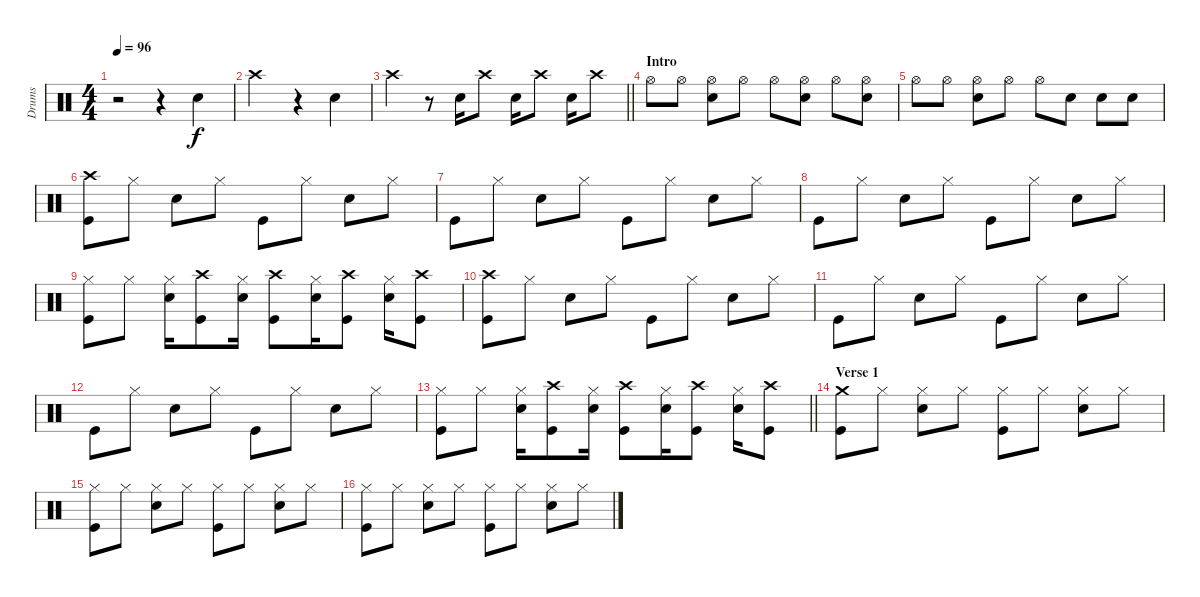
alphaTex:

\track ("Drums" "Drums") {instrument percussion}
\staff {score}
\articulation defaults
\ts (4 4)
\tempo 96
\clef neutral
\ks c
r.2{dy f} r.4 "Snare (hit) 2".4 |
"Crash high (hit)".2 r.4 "Snare (hit) 2".4 |
\barLineRight lightlight "Crash high (hit)".4
r.8 "Snare (hit) 2".16 "Crash high (hit)".8 "Snare (hit) 2".16 "Crash high (hit)".8 "Snare (hit) 2".16 "Crash high (hit)".8 |
\section ("" "Intro")
"Hi-Hat (open)".8 "Hi-Hat (open)".8 ("Hi-Hat (open)" "Snare (hit) 2").8 "Hi-Hat (open)".8 "Hi-Hat (open)".8 ("Hi-Hat (open)" "Snare (hit) 2").8 "Hi-Hat (open)".8 ("Hi-Hat (open)" "Snare (hit) 2").8 |
"Hi-Hat (open)".8 "Hi-Hat (open)".8 ("Hi-Hat (open)" "Snare (hit) 2").8 "Hi-Hat (open)".8 "Hi-Hat (open)".8 "Snare (hit) 2".8 "Snare (hit) 2".8 "Snare (hit) 2".8 |
("Crash high (hit)" "Kick (hit)").8 "Hi-Hat (closed)".8 "Electric Snare (hit)".8 "Hi-Hat (closed)".8 "Kick (hit)".8 "Hi-Hat (closed)".8 "Electric Snare (hit)".8 "Hi-Hat (closed)".8 |
"Kick (hit)".8 "Hi-Hat (closed)".8 "Electric Snare (hit)".8 "Hi-Hat (closed)".8 "Kick (hit)".8 "Hi-Hat (closed)".8 "Electric Snare (hit)".8 "Hi-Hat (closed)".8 |
"Kick (hit)".8 "Hi-Hat (closed)".8 "Electric Snare (hit)".8 "Hi-Hat (closed)".8 "Kick (hit)".8 "Hi-Hat (closed)".8 "Electric Snare (hit)".8 "Hi-Hat (closed)".8 |
("Hi-Hat (closed)" "Kick (hit)").8 "Hi-Hat (closed)".8 ("Hi-Hat (closed)" "Electric Snare (hit)").16 ("Crash high (hit)" "Kick (hit)").8 ("Hi-Hat (closed)" "Electric Snare (hit)").16 ("Crash high (hit)" "Kick (hit)").8 ("Hi-Hat (closed)" "Electric Snare (hit)").16 ("Crash high (hit)" "Kick (hit)").8 ("Hi-Hat (closed)" "Electric Snare (hit)").16 ("Crash high (hit)" "Kick (hit)").8 |
("Crash high (hit)" "Kick (hit)").8 "Hi-Hat (closed)".8 "Electric Snare (hit)".8 "Hi-Hat (closed)".8 "Kick (hit)".8 "Hi-Hat (closed)".8 "Electric Snare (hit)".8 "Hi-Hat (closed)".8 |
"Kick (hit)".8 "Hi-Hat (closed)".8 "Electric Snare (hit)".8 "Hi-Hat (closed)".8 "Kick (hit)".8 "Hi-Hat (closed)".8 "Electric Snare (hit)".8 "Hi-Hat (closed)".8 |
"Kick (hit)".8 "Hi-Hat (closed)".8 "Electric Snare (hit)".8 "Hi-Hat (closed)".8 "Kick (hit)".8 "Hi-Hat (closed)".8 "Electric Snare (hit)".8 "Hi-Hat (closed)".8 |
\barLineRight lightlight
("Hi-Hat (closed)" "Kick (hit)").8 "Hi-Hat (closed)".8 ("Hi-Hat (closed)" "Electric Snare (hit)").16 ("Crash high (hit)" "Kick (hit)").8 ("Hi-Hat (closed)" "Electric Snare (hit)").16 ("Crash high (hit)" "Kick (hit)").8 ("Hi-Hat (closed)" "Electric Snare (hit)").16 ("Crash high (hit)" "Kick (hit)").8 ("Hi-Hat (closed)" "Electric Snare (hit)").16 ("Crash high (hit)" "Kick (hit)").8 |
\section ("" "Verse 1")
("Crash medium (hit)" "Kick (hit)").8 "Hi-Hat (closed)".8 ("Hi-Hat (closed)" "Electric Snare (hit)").8 "Hi-Hat (closed)".8 ("Hi-Hat (closed)" "Kick (hit)").8 "Hi-Hat (closed)".8 ("Hi-Hat (closed)" "Electric Snare (hit)").8 "Hi-Hat (closed)".8 |
("Hi-Hat (closed)" "Kick (hit)").8 "Hi-Hat (closed)".8 ("Hi-Hat (closed)" "Electric Snare (hit)").8 "Hi-Hat (closed)".8 ("Hi-Hat (closed)" "Kick (hit)").8 "Hi-Hat (closed)".8 ("Hi-Hat (closed)" "Electric Snare (hit)").8 "Hi-Hat (closed)".8 |
("Hi-Hat (closed)" "Kick (hit)").8 "Hi-Hat (closed)".8 ("Hi-Hat (closed)" "Electric Snare (hit)").8 "Hi-Hat (closed)".8 ("Hi-Hat (closed)" "Kick (hit)").8 "Hi-Hat (closed)".8 ("Hi-Hat (closed)" "Electric Snare (hit)").8 "Hi-Hat (closed)".8
